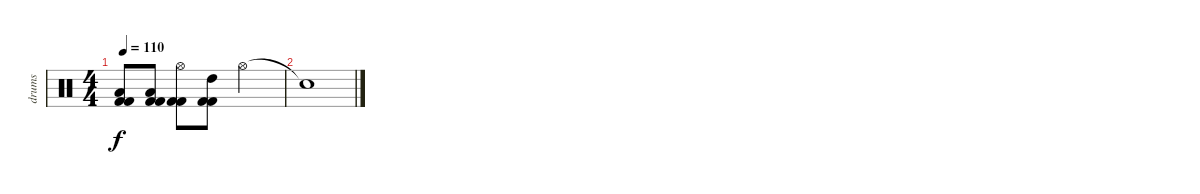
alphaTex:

\track ("drums" "drums") {instrument percussion}
\staff {score}
\articulation defaults
\ts (4 4)
\tempo 110
\clef neutral
\ks c
("Low Tom (hit)" "Kick (hit) 2" "Kick (hit) 2").8{dy f} ("Low Tom (hit)" "Kick (hit) 2" "Kick (hit) 2").8 ("Hi-Hat (open)" "Kick (hit) 2" "Kick (hit) 2").8 ("High Tom (hit)" "Kick (hit) 2" "Kick (hit) 2").8 "Hi-Hat (open)".2 |
"Snare (hit)"{t}.1
